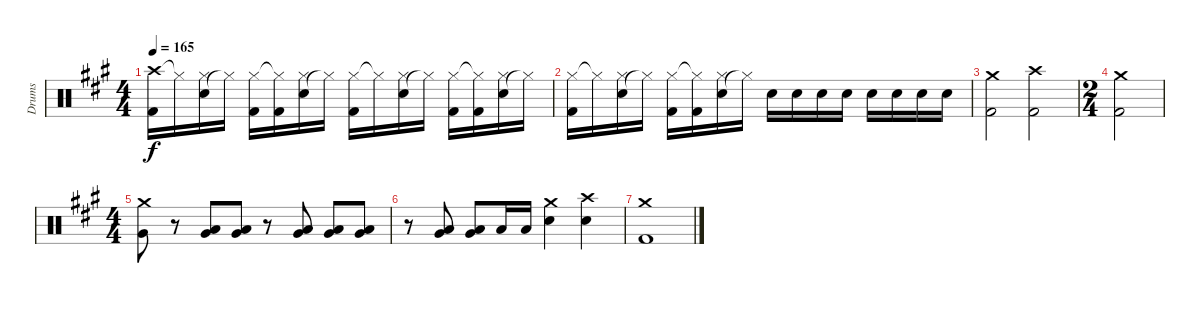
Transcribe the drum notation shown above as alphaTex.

\track ("Drums" "Drums") {instrument percussion}
\staff {score}
\articulation defaults
\ts (4 4)
\tempo 165
\clef neutral
\ks a
("Crash high (hit)" "Kick (hit) 2").16{dy f} "Hi-Hat (closed)"{t}.16 ("Electric Snare (hit)" "Hi-Hat (closed)").16 "Hi-Hat (closed)"{t}.16 ("Hi-Hat (closed)" "Kick (hit) 2").16 ("Hi-Hat (closed)"{t} "Kick (hit) 2").16 ("Electric Snare (hit)" "Hi-Hat (closed)").16 "Hi-Hat (closed)"{t}.16 ("Hi-Hat (closed)" "Kick (hit) 2").16 "Hi-Hat (closed)"{t}.16 ("Electric Snare (hit)" "Hi-Hat (closed)").16 "Hi-Hat (closed)"{t}.16 ("Hi-Hat (closed)" "Kick (hit) 2").16 ("Hi-Hat (closed)"{t} "Kick (hit) 2").16 ("Electric Snare (hit)" "Hi-Hat (closed)").16 "Hi-Hat (closed)"{t}.16 |
("Hi-Hat (closed)" "Kick (hit) 2").16 "Hi-Hat (closed)"{t}.16 ("Electric Snare (hit)" "Hi-Hat (closed)").16 "Hi-Hat (closed)"{t}.16 ("Hi-Hat (closed)" "Kick (hit) 2").16 ("Hi-Hat (closed)"{t} "Kick (hit) 2").16 ("Electric Snare (hit)" "Hi-Hat (closed)").16 "Hi-Hat (closed)"{t}.16 "Electric Snare (hit)".16 "Electric Snare (hit)".16 "Electric Snare (hit)".16 "Electric Snare (hit)".16 "Electric Snare (hit)".16 "Electric Snare (hit)".16 "Electric Snare (hit)".16 "Electric Snare (hit)".16 |
("Crash medium (hit)" "Kick (hit) 2").2 ("Crash high (hit)" "Kick (hit) 2").2 |
\ts (2 4)
("Crash medium (hit)" "Kick (hit) 2").2 |
\ts (4 4)
("Crash medium (hit)" "Very Low Tom (hit)").8 r.8 ("Low Tom (hit)" "Very Low Tom (hit)").8 ("Low Tom (hit)" "Very Low Tom (hit)").8 r.8 ("Low Tom (hit)" "Very Low Tom (hit)").8 ("Low Tom (hit)" "Very Low Tom (hit)").8 ("Low Tom (hit)" "Very Low Tom (hit)").8 |
r.8 ("Low Tom (hit)" "Very Low Tom (hit)").8 ("Low Tom (hit)" "Very Low Tom (hit)").8 "Low Tom (hit)".16 "Low Tom (hit)".16 ("Crash medium (hit)" "Electric Snare (hit)").4 ("Crash high (hit)" "Electric Snare (hit)").4 |
("Crash medium (hit)" "Kick (hit) 2").1
